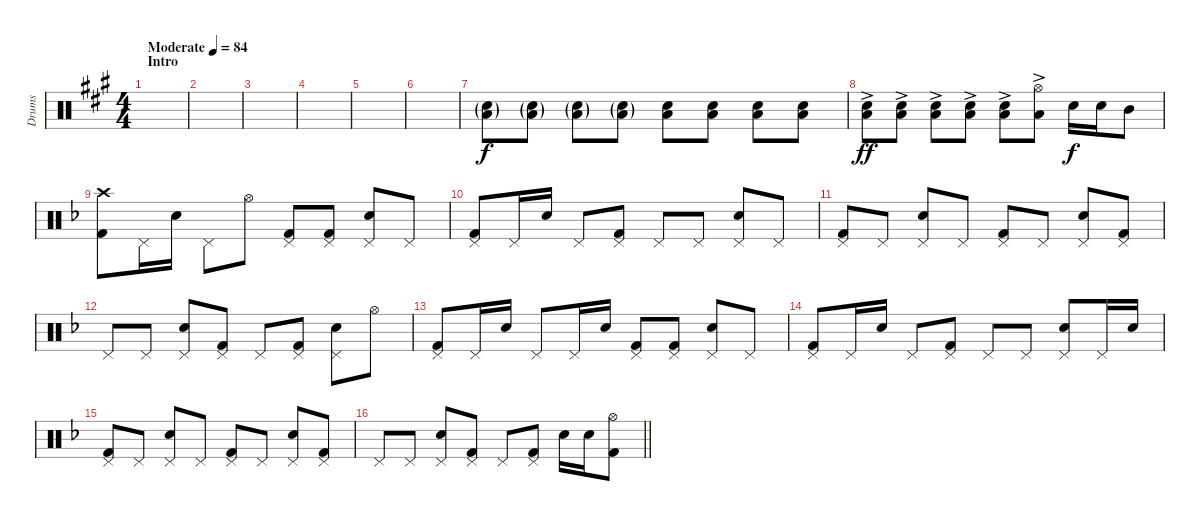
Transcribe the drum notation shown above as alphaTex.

\track ("Drums" "Drums") {instrument percussion}
\staff {score}
\articulation defaults
\ts (4 4)
\section ("" "Intro")
\tempo (84 "Moderate")
\clef neutral
\ks a
|
|
|
|
|
|
("Snare (hit) 2"{g} "Low Floor Tom (hit)"{g}).8 ("Snare (hit) 2"{g} "Low Floor Tom (hit)"{g}).8 ("Snare (hit) 2"{g} "Low Floor Tom (hit)"{g}).8 ("Snare (hit) 2"{g} "Low Floor Tom (hit)"{g}).8 ("Snare (hit) 2" "Low Floor Tom (hit)").8{dy f} ("Snare (hit) 2" "Low Floor Tom (hit)").8 ("Snare (hit) 2" "Low Floor Tom (hit)").8 ("Snare (hit) 2" "Low Floor Tom (hit)").8 |
("Snare (hit) 2" "Low Floor Tom (hit)"{ac}).8{dy ff} ("Snare (hit) 2" "Low Floor Tom (hit)"{ac}).8 ("Snare (hit) 2" "Low Floor Tom (hit)"{ac}).8 ("Snare (hit) 2" "Low Floor Tom (hit)"{ac}).8 ("Snare (hit) 2" "Low Floor Tom (hit)"{ac}).8 ("Hi-Hat (open)" "Low Floor Tom (hit)"{ac}).8 "Snare (hit) 2".16{dy f} "Snare (hit) 2".16 "Mid Tom (hit)".8 |
\ks f
("Crash high (hit)" "Kick (hit) 2").8 "Pedal Hi-Hat (hit)".16 "Snare (hit) 2".16 "Pedal Hi-Hat (hit)".8 "Hi-Hat (open)".8 ("Pedal Hi-Hat (hit)" "Kick (hit) 2").8 ("Pedal Hi-Hat (hit)" "Kick (hit) 2").8 ("Pedal Hi-Hat (hit)" "Snare (hit) 2").8 "Pedal Hi-Hat (hit)".8 |
("Pedal Hi-Hat (hit)" "Kick (hit) 2").8 "Pedal Hi-Hat (hit)".16 "Snare (hit) 2".16 "Pedal Hi-Hat (hit)".8 ("Pedal Hi-Hat (hit)" "Kick (hit) 2").8 "Pedal Hi-Hat (hit)".8 "Pedal Hi-Hat (hit)".8 ("Pedal Hi-Hat (hit)" "Snare (hit) 2").8 "Pedal Hi-Hat (hit)".8 |
("Pedal Hi-Hat (hit)" "Kick (hit) 2").8 "Pedal Hi-Hat (hit)".8 ("Pedal Hi-Hat (hit)" "Snare (hit) 2").8 "Pedal Hi-Hat (hit)".8 ("Pedal Hi-Hat (hit)" "Kick (hit) 2").8 "Pedal Hi-Hat (hit)".8 ("Pedal Hi-Hat (hit)" "Snare (hit) 2").8 ("Pedal Hi-Hat (hit)" "Kick (hit) 2").8 |
"Pedal Hi-Hat (hit)".8 "Pedal Hi-Hat (hit)".8 ("Pedal Hi-Hat (hit)" "Snare (hit) 2").8 ("Pedal Hi-Hat (hit)" "Kick (hit) 2").8 "Pedal Hi-Hat (hit)".8 ("Pedal Hi-Hat (hit)" "Kick (hit) 2").8 ("Pedal Hi-Hat (hit)" "Snare (hit) 2").8 "Hi-Hat (open)".8 |
("Pedal Hi-Hat (hit)" "Kick (hit) 2").8 "Pedal Hi-Hat (hit)".16 "Snare (hit) 2".16 "Pedal Hi-Hat (hit)".8 "Pedal Hi-Hat (hit)".16 "Snare (hit) 2".16 ("Pedal Hi-Hat (hit)" "Kick (hit) 2").8 ("Pedal Hi-Hat (hit)" "Kick (hit) 2").8 ("Pedal Hi-Hat (hit)" "Snare (hit) 2").8 "Pedal Hi-Hat (hit)".8 |
("Pedal Hi-Hat (hit)" "Kick (hit) 2").8 "Pedal Hi-Hat (hit)".16 "Snare (hit) 2".16 "Pedal Hi-Hat (hit)".8 ("Pedal Hi-Hat (hit)" "Kick (hit) 2").8 "Pedal Hi-Hat (hit)".8 "Pedal Hi-Hat (hit)".8 ("Pedal Hi-Hat (hit)" "Snare (hit) 2").8 "Pedal Hi-Hat (hit)".16 "Snare (hit) 2".16 |
("Pedal Hi-Hat (hit)" "Kick (hit) 2").8 "Pedal Hi-Hat (hit)".8 ("Pedal Hi-Hat (hit)" "Snare (hit) 2").8 "Pedal Hi-Hat (hit)".8 ("Pedal Hi-Hat (hit)" "Kick (hit) 2").8 "Pedal Hi-Hat (hit)".8 ("Pedal Hi-Hat (hit)" "Snare (hit) 2").8 ("Pedal Hi-Hat (hit)" "Kick (hit) 2").8 |
\barLineRight lightlight "Pedal Hi-Hat (hit)".8 "Pedal Hi-Hat (hit)".8
("Pedal Hi-Hat (hit)" "Snare (hit) 2").8 ("Pedal Hi-Hat (hit)" "Kick (hit) 2").8 "Pedal Hi-Hat (hit)".8 ("Pedal Hi-Hat (hit)" "Kick (hit) 2").8 "Snare (hit) 2".16 "Snare (hit) 2".16 ("Hi-Hat (open)" "Kick (hit) 2").8
